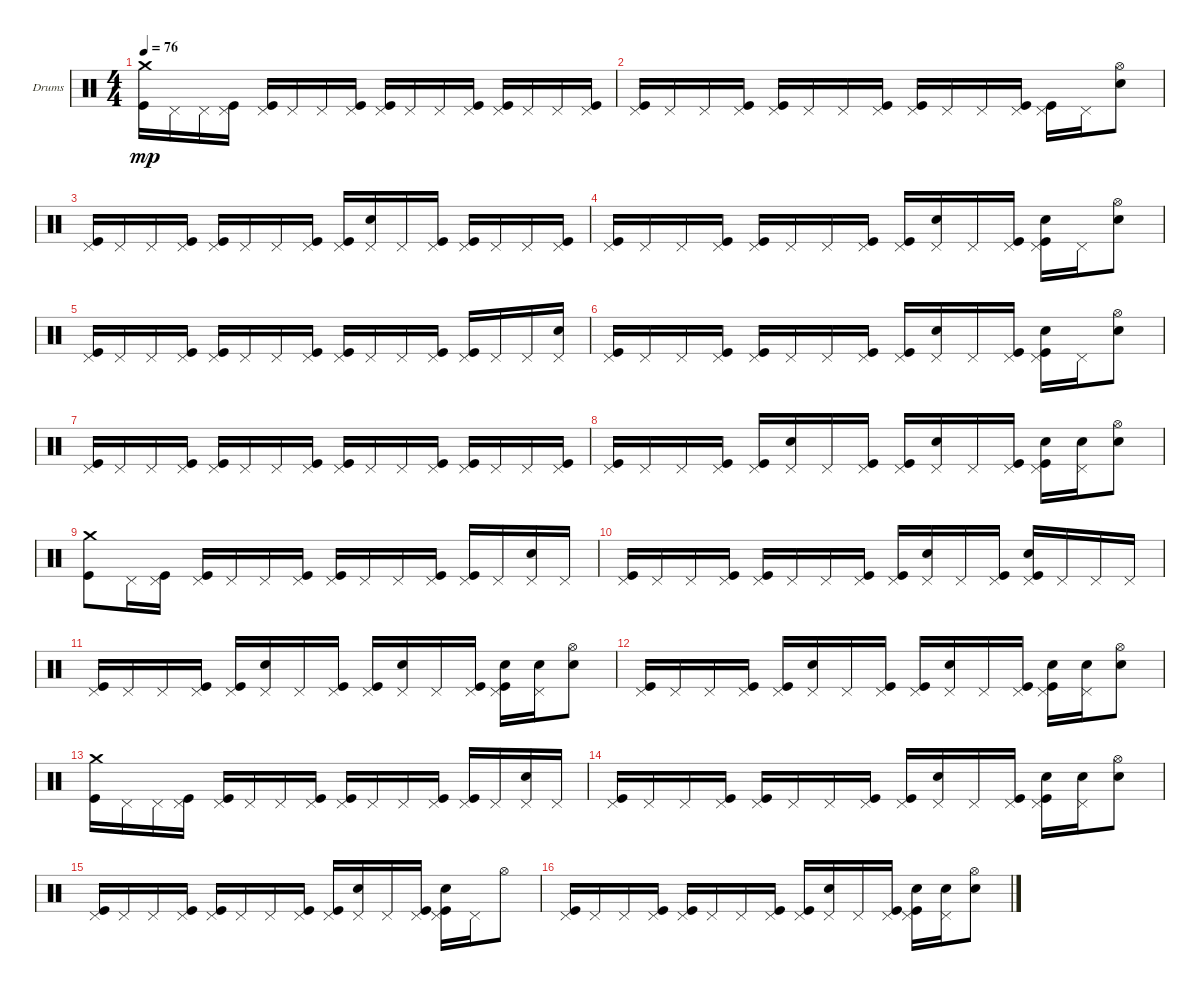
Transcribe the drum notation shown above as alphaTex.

\bracketExtendMode groupsimilarinstruments
\firstSystemTrackNameOrientation horizontal
\otherSystemsTrackNameOrientation horizontal
\track ("Drumkit" "Drums") {instrument percussion}
\staff {score}
\articulation defaults
\ts (4 4)
\tempo 76
\clef neutral
\ks c
("Crash medium (hit)" "Kick (hit)").16{dy mp} "Pedal Hi-Hat (hit)".16 "Pedal Hi-Hat (hit)".16 ("Pedal Hi-Hat (hit)" "Kick (hit)").16 ("Pedal Hi-Hat (hit)" "Kick (hit)").16 "Pedal Hi-Hat (hit)".16 "Pedal Hi-Hat (hit)".16 ("Pedal Hi-Hat (hit)" "Kick (hit)").16 ("Pedal Hi-Hat (hit)" "Kick (hit)").16 "Pedal Hi-Hat (hit)".16 "Pedal Hi-Hat (hit)".16 ("Pedal Hi-Hat (hit)" "Kick (hit)").16 ("Pedal Hi-Hat (hit)" "Kick (hit)").16 "Pedal Hi-Hat (hit)".16 "Pedal Hi-Hat (hit)".16 ("Pedal Hi-Hat (hit)" "Kick (hit)").16 |
("Kick (hit)" "Pedal Hi-Hat (hit)").16 "Pedal Hi-Hat (hit)".16 "Pedal Hi-Hat (hit)".16 ("Pedal Hi-Hat (hit)" "Kick (hit)").16 ("Pedal Hi-Hat (hit)" "Kick (hit)").16 "Pedal Hi-Hat (hit)".16 "Pedal Hi-Hat (hit)".16 ("Pedal Hi-Hat (hit)" "Kick (hit)").16 ("Pedal Hi-Hat (hit)" "Kick (hit)").16 "Pedal Hi-Hat (hit)".16 "Pedal Hi-Hat (hit)".16 ("Pedal Hi-Hat (hit)" "Kick (hit)").16 ("Pedal Hi-Hat (hit)" "Kick (hit)").16 "Pedal Hi-Hat (hit)".16 ("Hi-Hat (open)" "Snare (hit) 2").8 |
("Kick (hit)" "Pedal Hi-Hat (hit)").16 "Pedal Hi-Hat (hit)".16 "Pedal Hi-Hat (hit)".16 ("Pedal Hi-Hat (hit)" "Kick (hit)").16 ("Pedal Hi-Hat (hit)" "Kick (hit)").16 "Pedal Hi-Hat (hit)".16 "Pedal Hi-Hat (hit)".16 ("Pedal Hi-Hat (hit)" "Kick (hit)").16 ("Pedal Hi-Hat (hit)" "Kick (hit)").16 ("Pedal Hi-Hat (hit)" "Snare (hit) 2").16 "Pedal Hi-Hat (hit)".16 ("Pedal Hi-Hat (hit)" "Kick (hit)").16 ("Pedal Hi-Hat (hit)" "Kick (hit)").16 "Pedal Hi-Hat (hit)".16 "Pedal Hi-Hat (hit)".16 ("Pedal Hi-Hat (hit)" "Kick (hit)").16 |
("Pedal Hi-Hat (hit)" "Kick (hit)").16 "Pedal Hi-Hat (hit)".16 "Pedal Hi-Hat (hit)".16 ("Pedal Hi-Hat (hit)" "Kick (hit)").16 ("Pedal Hi-Hat (hit)" "Kick (hit)").16 "Pedal Hi-Hat (hit)".16 "Pedal Hi-Hat (hit)".16 ("Pedal Hi-Hat (hit)" "Kick (hit)").16 ("Pedal Hi-Hat (hit)" "Kick (hit)").16 ("Pedal Hi-Hat (hit)" "Snare (hit) 2").16 "Pedal Hi-Hat (hit)".16 ("Pedal Hi-Hat (hit)" "Kick (hit)").16 ("Pedal Hi-Hat (hit)" "Kick (hit)" "Snare (hit) 2").16 "Pedal Hi-Hat (hit)".16 ("Snare (hit) 2" "Hi-Hat (open)").8 |
("Kick (hit)" "Pedal Hi-Hat (hit)").16 "Pedal Hi-Hat (hit)".16 "Pedal Hi-Hat (hit)".16 ("Pedal Hi-Hat (hit)" "Kick (hit)").16 ("Pedal Hi-Hat (hit)" "Kick (hit)").16 "Pedal Hi-Hat (hit)".16 "Pedal Hi-Hat (hit)".16 ("Pedal Hi-Hat (hit)" "Kick (hit)").16 ("Pedal Hi-Hat (hit)" "Kick (hit)").16 "Pedal Hi-Hat (hit)".16 "Pedal Hi-Hat (hit)".16 ("Pedal Hi-Hat (hit)" "Kick (hit)").16 ("Pedal Hi-Hat (hit)" "Kick (hit)").16 "Pedal Hi-Hat (hit)".16 "Pedal Hi-Hat (hit)".16 ("Pedal Hi-Hat (hit)" "Snare (hit) 2").16 |
("Kick (hit)" "Pedal Hi-Hat (hit)").16 "Pedal Hi-Hat (hit)".16 "Pedal Hi-Hat (hit)".16 ("Pedal Hi-Hat (hit)" "Kick (hit)").16 ("Pedal Hi-Hat (hit)" "Kick (hit)").16 "Pedal Hi-Hat (hit)".16 "Pedal Hi-Hat (hit)".16 ("Pedal Hi-Hat (hit)" "Kick (hit)").16 ("Pedal Hi-Hat (hit)" "Kick (hit)").16 ("Pedal Hi-Hat (hit)" "Snare (hit) 2").16 "Pedal Hi-Hat (hit)".16 ("Pedal Hi-Hat (hit)" "Kick (hit)").16 ("Pedal Hi-Hat (hit)" "Kick (hit)" "Snare (hit) 2").16 "Pedal Hi-Hat (hit)".16 ("Hi-Hat (open)" "Snare (hit) 2").8 |
("Pedal Hi-Hat (hit)" "Kick (hit)").16 "Pedal Hi-Hat (hit)".16 "Pedal Hi-Hat (hit)".16 ("Pedal Hi-Hat (hit)" "Kick (hit)").16 ("Pedal Hi-Hat (hit)" "Kick (hit)").16 "Pedal Hi-Hat (hit)".16 "Pedal Hi-Hat (hit)".16 ("Pedal Hi-Hat (hit)" "Kick (hit)").16 ("Pedal Hi-Hat (hit)" "Kick (hit)").16 "Pedal Hi-Hat (hit)".16 "Pedal Hi-Hat (hit)".16 ("Pedal Hi-Hat (hit)" "Kick (hit)").16 ("Pedal Hi-Hat (hit)" "Kick (hit)").16 "Pedal Hi-Hat (hit)".16 "Pedal Hi-Hat (hit)".16 ("Pedal Hi-Hat (hit)" "Kick (hit)").16 |
("Pedal Hi-Hat (hit)" "Kick (hit)").16 "Pedal Hi-Hat (hit)".16 "Pedal Hi-Hat (hit)".16 ("Pedal Hi-Hat (hit)" "Kick (hit)").16 ("Pedal Hi-Hat (hit)" "Kick (hit)").16 ("Pedal Hi-Hat (hit)" "Snare (hit) 2").16 "Pedal Hi-Hat (hit)".16 ("Pedal Hi-Hat (hit)" "Kick (hit)").16 ("Pedal Hi-Hat (hit)" "Kick (hit)").16 ("Pedal Hi-Hat (hit)" "Snare (hit) 2").16 "Pedal Hi-Hat (hit)".16 ("Pedal Hi-Hat (hit)" "Kick (hit)").16 ("Pedal Hi-Hat (hit)" "Kick (hit)" "Snare (hit) 2").16 ("Pedal Hi-Hat (hit)" "Snare (hit) 2").16 ("Snare (hit) 2" "Hi-Hat (open)").8 |
("Kick (hit)" "Crash medium (hit)").8 "Pedal Hi-Hat (hit)".16 ("Pedal Hi-Hat (hit)" "Kick (hit)").16 ("Pedal Hi-Hat (hit)" "Kick (hit)").16 "Pedal Hi-Hat (hit)".16 "Pedal Hi-Hat (hit)".16 ("Pedal Hi-Hat (hit)" "Kick (hit)").16 ("Pedal Hi-Hat (hit)" "Kick (hit)").16 "Pedal Hi-Hat (hit)".16 "Pedal Hi-Hat (hit)".16 ("Pedal Hi-Hat (hit)" "Kick (hit)").16 ("Pedal Hi-Hat (hit)" "Kick (hit)").16 "Pedal Hi-Hat (hit)".16 ("Pedal Hi-Hat (hit)" "Snare (hit) 2").16 "Pedal Hi-Hat (hit)".16 |
("Kick (hit)" "Pedal Hi-Hat (hit)").16 "Pedal Hi-Hat (hit)".16 "Pedal Hi-Hat (hit)".16 ("Pedal Hi-Hat (hit)" "Kick (hit)").16 ("Pedal Hi-Hat (hit)" "Kick (hit)").16 "Pedal Hi-Hat (hit)".16 "Pedal Hi-Hat (hit)".16 ("Pedal Hi-Hat (hit)" "Kick (hit)").16 ("Pedal Hi-Hat (hit)" "Kick (hit)").16 ("Pedal Hi-Hat (hit)" "Snare (hit) 2").16 "Pedal Hi-Hat (hit)".16 ("Pedal Hi-Hat (hit)" "Kick (hit)").16 ("Pedal Hi-Hat (hit)" "Kick (hit)" "Snare (hit) 2").16 "Pedal Hi-Hat (hit)".16 "Pedal Hi-Hat (hit)".16 "Pedal Hi-Hat (hit)".16 |
("Kick (hit)" "Pedal Hi-Hat (hit)").16 "Pedal Hi-Hat (hit)".16 "Pedal Hi-Hat (hit)".16 ("Pedal Hi-Hat (hit)" "Kick (hit)").16 ("Pedal Hi-Hat (hit)" "Kick (hit)").16 ("Pedal Hi-Hat (hit)" "Snare (hit) 2").16 "Pedal Hi-Hat (hit)".16 ("Pedal Hi-Hat (hit)" "Kick (hit)").16 ("Pedal Hi-Hat (hit)" "Kick (hit)").16 ("Pedal Hi-Hat (hit)" "Snare (hit) 2").16 "Pedal Hi-Hat (hit)".16 ("Pedal Hi-Hat (hit)" "Kick (hit)").16 ("Pedal Hi-Hat (hit)" "Kick (hit)" "Snare (hit) 2").16 ("Pedal Hi-Hat (hit)" "Snare (hit) 2").16 ("Snare (hit) 2" "Hi-Hat (open)").8 |
("Kick (hit)" "Pedal Hi-Hat (hit)").16 "Pedal Hi-Hat (hit)".16 "Pedal Hi-Hat (hit)".16 ("Pedal Hi-Hat (hit)" "Kick (hit)").16 ("Pedal Hi-Hat (hit)" "Kick (hit)").16 ("Pedal Hi-Hat (hit)" "Snare (hit) 2").16 "Pedal Hi-Hat (hit)".16 ("Pedal Hi-Hat (hit)" "Kick (hit)").16 ("Pedal Hi-Hat (hit)" "Kick (hit)").16 ("Pedal Hi-Hat (hit)" "Snare (hit) 2").16 "Pedal Hi-Hat (hit)".16 ("Pedal Hi-Hat (hit)" "Kick (hit)").16 ("Pedal Hi-Hat (hit)" "Kick (hit)" "Snare (hit) 2").16 ("Pedal Hi-Hat (hit)" "Snare (hit) 2").16 ("Snare (hit) 2" "Hi-Hat (open)").8 |
("Kick (hit)" "Crash medium (hit)").16 "Pedal Hi-Hat (hit)".16 "Pedal Hi-Hat (hit)".16 ("Pedal Hi-Hat (hit)" "Kick (hit)").16 ("Pedal Hi-Hat (hit)" "Kick (hit)").16 "Pedal Hi-Hat (hit)".16 "Pedal Hi-Hat (hit)".16 ("Pedal Hi-Hat (hit)" "Kick (hit)").16 ("Pedal Hi-Hat (hit)" "Kick (hit)").16 "Pedal Hi-Hat (hit)".16 "Pedal Hi-Hat (hit)".16 ("Pedal Hi-Hat (hit)" "Kick (hit)").16 ("Pedal Hi-Hat (hit)" "Kick (hit)").16 "Pedal Hi-Hat (hit)".16 ("Pedal Hi-Hat (hit)" "Snare (hit) 2").16 "Pedal Hi-Hat (hit)".16 |
("Kick (hit)" "Pedal Hi-Hat (hit)").16 "Pedal Hi-Hat (hit)".16 "Pedal Hi-Hat (hit)".16 ("Pedal Hi-Hat (hit)" "Kick (hit)").16 ("Pedal Hi-Hat (hit)" "Kick (hit)").16 "Pedal Hi-Hat (hit)".16 "Pedal Hi-Hat (hit)".16 ("Pedal Hi-Hat (hit)" "Kick (hit)").16 ("Pedal Hi-Hat (hit)" "Kick (hit)").16 ("Pedal Hi-Hat (hit)" "Snare (hit) 2").16 "Pedal Hi-Hat (hit)".16 ("Pedal Hi-Hat (hit)" "Kick (hit)").16 ("Pedal Hi-Hat (hit)" "Kick (hit)" "Snare (hit) 2").16 ("Pedal Hi-Hat (hit)" "Snare (hit) 2").16 ("Snare (hit) 2" "Hi-Hat (open)").8 |
("Pedal Hi-Hat (hit)" "Kick (hit)").16 "Pedal Hi-Hat (hit)".16 "Pedal Hi-Hat (hit)".16 ("Pedal Hi-Hat (hit)" "Kick (hit)").16 ("Pedal Hi-Hat (hit)" "Kick (hit)").16 "Pedal Hi-Hat (hit)".16 "Pedal Hi-Hat (hit)".16 ("Pedal Hi-Hat (hit)" "Kick (hit)").16 ("Pedal Hi-Hat (hit)" "Kick (hit)").16 ("Pedal Hi-Hat (hit)" "Snare (hit) 2").16 "Pedal Hi-Hat (hit)".16 ("Pedal Hi-Hat (hit)" "Kick (hit)").16 ("Pedal Hi-Hat (hit)" "Kick (hit)" "Snare (hit) 2").16 "Pedal Hi-Hat (hit)".16 "Hi-Hat (open)".8 |
("Pedal Hi-Hat (hit)" "Kick (hit)").16 "Pedal Hi-Hat (hit)".16 "Pedal Hi-Hat (hit)".16 ("Pedal Hi-Hat (hit)" "Kick (hit)").16 ("Pedal Hi-Hat (hit)" "Kick (hit)").16 "Pedal Hi-Hat (hit)".16 "Pedal Hi-Hat (hit)".16 ("Pedal Hi-Hat (hit)" "Kick (hit)").16 ("Pedal Hi-Hat (hit)" "Kick (hit)").16 ("Pedal Hi-Hat (hit)" "Snare (hit) 2").16 "Pedal Hi-Hat (hit)".16 ("Pedal Hi-Hat (hit)" "Kick (hit)").16 ("Pedal Hi-Hat (hit)" "Kick (hit)" "Snare (hit) 2").16 ("Pedal Hi-Hat (hit)" "Snare (hit) 2").16 ("Snare (hit) 2" "Hi-Hat (open)").8
